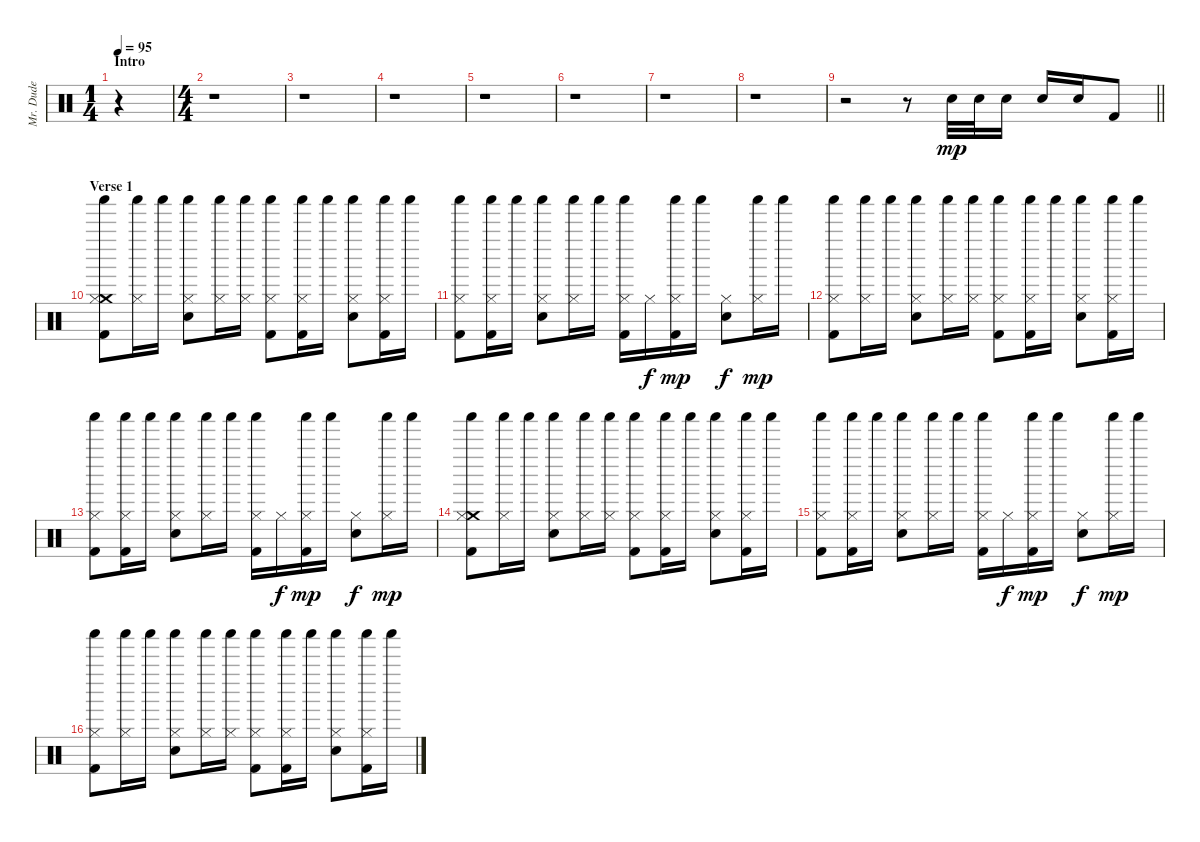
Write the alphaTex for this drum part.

\track ("Mr. Dude" "Mr. Dude") {instrument percussion}
\staff {score}
\articulation defaults
\ts (1 4)
\section ("" "Intro")
\tempo 95
\clef neutral
\ks c
r.4{dy mp} |
\ts (4 4)
r.1 |
r.1 |
r.1 |
r.1 |
r.1 |
r.1 |
r.1 |
\barLineRight lightlight
r.2 r.8 "Electric Snare (hit)".32 "Electric Snare (hit)".32 "Electric Snare (hit)".16 "Electric Snare (hit)".16 "Electric Snare (hit)".16 "Kick (hit) 2".8 |
\section ("" "Verse 1")
("Crash medium (hit)" "Shaker (hit)" "Hi-Hat (closed)" "Kick (hit) 2").8 ("Shaker (hit)" "Hi-Hat (closed)").16 "Shaker (hit)".16 ("Shaker (hit)" "Hi-Hat (closed)" "Electric Snare (hit)").8 ("Shaker (hit)" "Hi-Hat (closed)").16 ("Shaker (hit)" "Hi-Hat (closed)").16 ("Shaker (hit)" "Hi-Hat (closed)" "Kick (hit) 2").8 ("Shaker (hit)" "Hi-Hat (closed)" "Kick (hit) 2").16 "Shaker (hit)".16 ("Shaker (hit)" "Hi-Hat (closed)" "Electric Snare (hit)").8 ("Shaker (hit)" "Hi-Hat (closed)" "Kick (hit) 2").16 "Shaker (hit)".16 |
("Shaker (hit)" "Hi-Hat (closed)" "Kick (hit) 2").8 ("Shaker (hit)" "Hi-Hat (closed)" "Kick (hit) 2").16 "Shaker (hit)".16 ("Shaker (hit)" "Hi-Hat (closed)" "Electric Snare (hit)").8 ("Shaker (hit)" "Hi-Hat (closed)").16 "Shaker (hit)".16 ("Shaker (hit)" "Hi-Hat (closed)" "Kick (hit) 2").16 "Hi-Hat (closed)".16{dy f} ("Shaker (hit)" "Hi-Hat (closed)" "Kick (hit) 2").16{dy mp} "Shaker (hit)".16 ("Hi-Hat (closed)" "Electric Snare (hit)").8{dy f} ("Shaker (hit)" "Hi-Hat (closed)").16{dy mp} "Shaker (hit)".16 |
("Shaker (hit)" "Hi-Hat (closed)" "Kick (hit) 2").8 ("Shaker (hit)" "Hi-Hat (closed)").16 "Shaker (hit)".16 ("Shaker (hit)" "Hi-Hat (closed)" "Electric Snare (hit)").8 ("Shaker (hit)" "Hi-Hat (closed)").16 ("Shaker (hit)" "Hi-Hat (closed)").16 ("Shaker (hit)" "Hi-Hat (closed)" "Kick (hit) 2").8 ("Shaker (hit)" "Hi-Hat (closed)" "Kick (hit) 2").16 "Shaker (hit)".16 ("Shaker (hit)" "Hi-Hat (closed)" "Electric Snare (hit)").8 ("Shaker (hit)" "Hi-Hat (closed)" "Kick (hit) 2").16 "Shaker (hit)".16 |
("Shaker (hit)" "Hi-Hat (closed)" "Kick (hit) 2").8 ("Shaker (hit)" "Hi-Hat (closed)" "Kick (hit) 2").16 "Shaker (hit)".16 ("Shaker (hit)" "Hi-Hat (closed)" "Electric Snare (hit)").8 ("Shaker (hit)" "Hi-Hat (closed)").16 "Shaker (hit)".16 ("Shaker (hit)" "Hi-Hat (closed)" "Kick (hit) 2").16 "Hi-Hat (closed)".16{dy f} ("Shaker (hit)" "Hi-Hat (closed)" "Kick (hit) 2").16{dy mp} "Shaker (hit)".16 ("Hi-Hat (closed)" "Electric Snare (hit)").8{dy f} ("Shaker (hit)" "Hi-Hat (closed)").16{dy mp} "Shaker (hit)".16 |
("Crash medium (hit)" "Shaker (hit)" "Hi-Hat (closed)" "Kick (hit) 2").8 ("Shaker (hit)" "Hi-Hat (closed)").16 "Shaker (hit)".16 ("Shaker (hit)" "Hi-Hat (closed)" "Electric Snare (hit)").8 ("Shaker (hit)" "Hi-Hat (closed)").16 ("Shaker (hit)" "Hi-Hat (closed)").16 ("Shaker (hit)" "Hi-Hat (closed)" "Kick (hit) 2").8 ("Shaker (hit)" "Hi-Hat (closed)" "Kick (hit) 2").16 "Shaker (hit)".16 ("Shaker (hit)" "Hi-Hat (closed)" "Electric Snare (hit)").8 ("Shaker (hit)" "Hi-Hat (closed)" "Kick (hit) 2").16 "Shaker (hit)".16 |
("Shaker (hit)" "Hi-Hat (closed)" "Kick (hit) 2").8 ("Shaker (hit)" "Hi-Hat (closed)" "Kick (hit) 2").16 "Shaker (hit)".16 ("Shaker (hit)" "Hi-Hat (closed)" "Electric Snare (hit)").8 ("Shaker (hit)" "Hi-Hat (closed)").16 "Shaker (hit)".16 ("Shaker (hit)" "Hi-Hat (closed)" "Kick (hit) 2").16 "Hi-Hat (closed)".16{dy f} ("Shaker (hit)" "Hi-Hat (closed)" "Kick (hit) 2").16{dy mp} "Shaker (hit)".16 ("Hi-Hat (closed)" "Electric Snare (hit)").8{dy f} ("Shaker (hit)" "Hi-Hat (closed)").16{dy mp} "Shaker (hit)".16 |
("Shaker (hit)" "Hi-Hat (closed)" "Kick (hit) 2").8 ("Shaker (hit)" "Hi-Hat (closed)").16 "Shaker (hit)".16 ("Shaker (hit)" "Hi-Hat (closed)" "Electric Snare (hit)").8 ("Shaker (hit)" "Hi-Hat (closed)").16 ("Shaker (hit)" "Hi-Hat (closed)").16 ("Shaker (hit)" "Hi-Hat (closed)" "Kick (hit) 2").8 ("Shaker (hit)" "Hi-Hat (closed)" "Kick (hit) 2").16 "Shaker (hit)".16 ("Shaker (hit)" "Hi-Hat (closed)" "Electric Snare (hit)").8 ("Shaker (hit)" "Hi-Hat (closed)" "Kick (hit) 2").16 "Shaker (hit)".16
